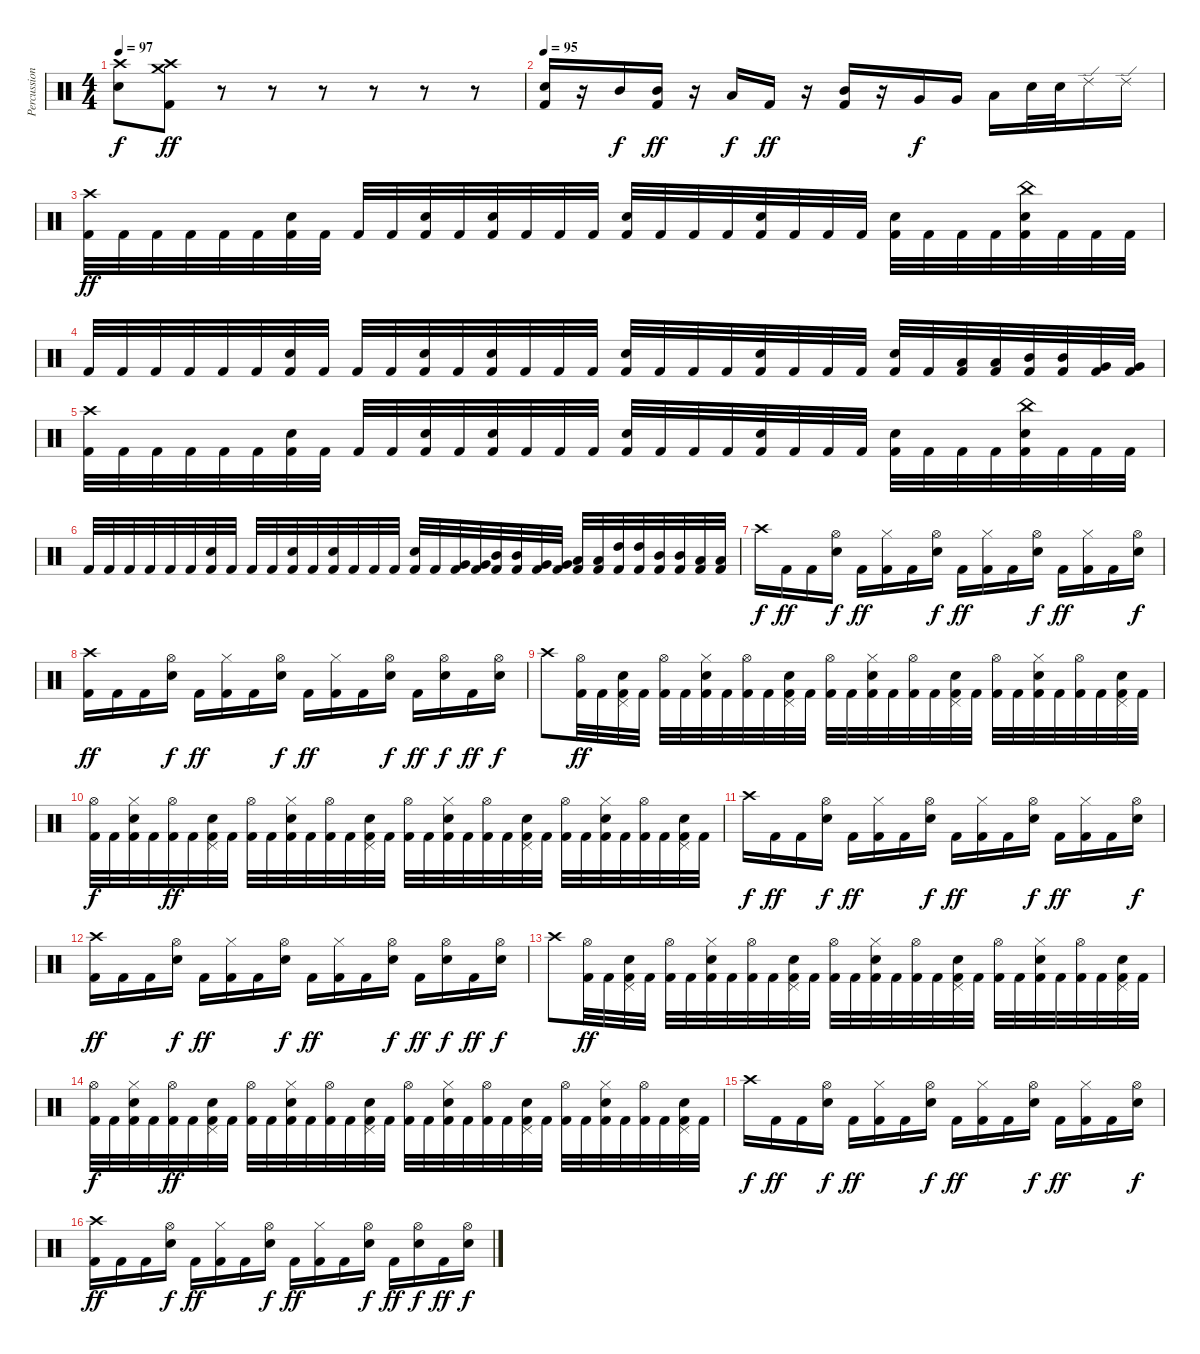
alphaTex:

\track ("Percussion" "Percussion") {instrument percussion}
\staff {score}
\articulation defaults
\ts (4 4)
\tempo 97
\clef neutral
\ks c
("Crash high (hit)" "Electric Snare (hit)").8{dy f} ("Crash high (hit)" "Crash medium (hit)" "Kick (hit) 2").8{dy ff} r.8 r.8 r.8 r.8 r.8 r.8 |
\tempo 95
("Electric Snare (hit)" "Kick (hit) 2").16 r.16 "Mid Tom (hit)".16{dy f} ("Mid Tom (hit)" "Kick (hit) 2").16{dy ff} r.16 "Low Tom (hit)".16{dy f} "Kick (hit) 2".16{dy ff} r.16 ("Mid Tom (hit)" "Kick (hit) 2").16 r.16 "Very Low Tom (hit)".16{dy f} "Very Low Tom (hit)".16 "Low Floor Tom (hit)".16 "Electric Snare (hit)".32 "Electric Snare (hit)".32 "Ride (edge) 2".16 "Ride (edge) 2".16 |
("Crash high (hit)" "Kick (hit) 2").32{dy ff} "Kick (hit) 2".32 "Kick (hit) 2".32 "Kick (hit) 2".32 "Kick (hit) 2".32 "Kick (hit) 2".32 ("Electric Snare (hit)" "Kick (hit) 2").32 "Kick (hit) 2".32 "Kick (hit) 2".32 "Kick (hit) 2".32 ("Electric Snare (hit)" "Kick (hit) 2").32 "Kick (hit) 2".32 ("Electric Snare (hit)" "Kick (hit) 2").32 "Kick (hit) 2".32 "Kick (hit) 2".32 "Kick (hit) 2".32 ("Electric Snare (hit)" "Kick (hit) 2").32 "Kick (hit) 2".32 "Kick (hit) 2".32 "Kick (hit) 2".32 ("Electric Snare (hit)" "Kick (hit) 2").32 "Kick (hit) 2".32 "Kick (hit) 2".32 "Kick (hit) 2".32 ("Electric Snare (hit)" "Kick (hit) 2").32 "Kick (hit) 2".32 "Kick (hit) 2".32 "Kick (hit) 2".32 ("China (hit)" "Electric Snare (hit)" "Kick (hit) 2").32 "Kick (hit) 2".32 "Kick (hit) 2".32 "Kick (hit) 2".32 |
"Kick (hit) 2".32 "Kick (hit) 2".32 "Kick (hit) 2".32 "Kick (hit) 2".32 "Kick (hit) 2".32 "Kick (hit) 2".32 ("Electric Snare (hit)" "Kick (hit) 2").32 "Kick (hit) 2".32 "Kick (hit) 2".32 "Kick (hit) 2".32 ("Electric Snare (hit)" "Kick (hit) 2").32 "Kick (hit) 2".32 ("Electric Snare (hit)" "Kick (hit) 2").32 "Kick (hit) 2".32 "Kick (hit) 2".32 "Kick (hit) 2".32 ("Electric Snare (hit)" "Kick (hit) 2").32 "Kick (hit) 2".32 "Kick (hit) 2".32 "Kick (hit) 2".32 ("Electric Snare (hit)" "Kick (hit) 2").32 "Kick (hit) 2".32 "Kick (hit) 2".32 "Kick (hit) 2".32 ("Electric Snare (hit)" "Kick (hit) 2").32 "Kick (hit) 2".32 ("Low Tom (hit)" "Kick (hit) 2").32 ("Low Tom (hit)" "Kick (hit) 2").32 ("Mid Tom (hit)" "Kick (hit) 2").32 ("Mid Tom (hit)" "Kick (hit) 2").32 ("Very Low Tom (hit)" "Kick (hit) 2").32 ("Very Low Tom (hit)" "Kick (hit) 2").32 |
("Crash high (hit)" "Kick (hit) 2").32 "Kick (hit) 2".32 "Kick (hit) 2".32 "Kick (hit) 2".32 "Kick (hit) 2".32 "Kick (hit) 2".32 ("Electric Snare (hit)" "Kick (hit) 2").32 "Kick (hit) 2".32 "Kick (hit) 2".32 "Kick (hit) 2".32 ("Electric Snare (hit)" "Kick (hit) 2").32 "Kick (hit) 2".32 ("Electric Snare (hit)" "Kick (hit) 2").32 "Kick (hit) 2".32 "Kick (hit) 2".32 "Kick (hit) 2".32 ("Electric Snare (hit)" "Kick (hit) 2").32 "Kick (hit) 2".32 "Kick (hit) 2".32 "Kick (hit) 2".32 ("Electric Snare (hit)" "Kick (hit) 2").32 "Kick (hit) 2".32 "Kick (hit) 2".32 "Kick (hit) 2".32 ("Electric Snare (hit)" "Kick (hit) 2").32 "Kick (hit) 2".32 "Kick (hit) 2".32 "Kick (hit) 2".32 ("China (hit)" "Electric Snare (hit)" "Kick (hit) 2").32 "Kick (hit) 2".32 "Kick (hit) 2".32 "Kick (hit) 2".32 |
"Kick (hit) 2".32 "Kick (hit) 2".32 "Kick (hit) 2".32 "Kick (hit) 2".32 "Kick (hit) 2".32 "Kick (hit) 2".32 ("Electric Snare (hit)" "Kick (hit) 2").32 "Kick (hit) 2".32 "Kick (hit) 2".32 "Kick (hit) 2".32 ("Electric Snare (hit)" "Kick (hit) 2").32 "Kick (hit) 2".32 ("Electric Snare (hit)" "Kick (hit) 2").32 "Kick (hit) 2".32 "Kick (hit) 2".32 "Kick (hit) 2".32 ("Electric Snare (hit)" "Kick (hit) 2").32 "Kick (hit) 2".32 ("Very Low Tom (hit)" "Kick (hit) 2").32 ("Very Low Tom (hit)" "Kick (hit) 2").32 ("Mid Tom (hit)" "Kick (hit) 2").32 ("Mid Tom (hit)" "Kick (hit) 2").32 ("Very Low Tom (hit)" "Kick (hit) 2").32 ("Very Low Tom (hit)" "Kick (hit) 2").32 ("Low Tom (hit)" "Kick (hit) 2").32 ("Low Tom (hit)" "Kick (hit) 2").32 ("High Tom (hit)" "Kick (hit) 2").32 ("High Tom (hit)" "Kick (hit) 2").32 ("Mid Tom (hit)" "Kick (hit) 2").32 ("Mid Tom (hit)" "Kick (hit) 2").32 ("Low Tom (hit)" "Kick (hit) 2").32 ("Low Tom (hit)" "Kick (hit) 2").32 |
"Crash high (hit)".16{dy f} "Kick (hit) 2".16{dy ff} "Kick (hit) 2".16 ("Hi-Hat (open)" "Electric Snare (hit)").16{dy f} "Kick (hit) 2".16{dy ff} ("Hi-Hat (closed)" "Kick (hit) 2").16 "Kick (hit) 2".16 ("Hi-Hat (open)" "Electric Snare (hit)").16{dy f} "Kick (hit) 2".16{dy ff} ("Hi-Hat (closed)" "Kick (hit) 2").16 "Kick (hit) 2".16 ("Hi-Hat (open)" "Electric Snare (hit)").16{dy f} "Kick (hit) 2".16{dy ff} ("Hi-Hat (closed)" "Kick (hit) 2").16 "Kick (hit) 2".16 ("Hi-Hat (open)" "Electric Snare (hit)").16{dy f} |
("Crash high (hit)" "Kick (hit) 2").16{dy ff} "Kick (hit) 2".16 "Kick (hit) 2".16 ("Hi-Hat (open)" "Electric Snare (hit)").16{dy f} "Kick (hit) 2".16{dy ff} ("Hi-Hat (closed)" "Kick (hit) 2").16 "Kick (hit) 2".16 ("Hi-Hat (open)" "Electric Snare (hit)").16{dy f} "Kick (hit) 2".16{dy ff} ("Hi-Hat (closed)" "Kick (hit) 2").16 "Kick (hit) 2".16 ("Hi-Hat (open)" "Electric Snare (hit)").16{dy f} "Kick (hit) 2".16{dy ff} ("Hi-Hat (open)" "Electric Snare (hit)").16{dy f} "Kick (hit) 2".16{dy ff} ("Hi-Hat (open)" "Electric Snare (hit)").16{dy f} |
"Crash high (hit)".8 ("Hi-Hat (open)" "Kick (hit) 2").32{dy ff} "Kick (hit) 2".32 ("Pedal Hi-Hat (hit)" "Electric Snare (hit)" "Kick (hit) 2").32 "Kick (hit) 2".32 ("Hi-Hat (open)" "Kick (hit) 2").32 "Kick (hit) 2".32 ("Hi-Hat (closed)" "Electric Snare (hit)" "Kick (hit) 2").32 "Kick (hit) 2".32 ("Hi-Hat (open)" "Kick (hit) 2").32 "Kick (hit) 2".32 ("Pedal Hi-Hat (hit)" "Electric Snare (hit)" "Kick (hit) 2").32 "Kick (hit) 2".32 ("Hi-Hat (open)" "Kick (hit) 2").32 "Kick (hit) 2".32 ("Hi-Hat (closed)" "Electric Snare (hit)" "Kick (hit) 2").32 "Kick (hit) 2".32 ("Hi-Hat (open)" "Kick (hit) 2").32 "Kick (hit) 2".32 ("Pedal Hi-Hat (hit)" "Electric Snare (hit)" "Kick (hit) 2").32 "Kick (hit) 2".32 ("Hi-Hat (open)" "Kick (hit) 2").32 "Kick (hit) 2".32 ("Hi-Hat (closed)" "Electric Snare (hit)" "Kick (hit) 2").32 "Kick (hit) 2".32 ("Hi-Hat (open)" "Kick (hit) 2").32 "Kick (hit) 2".32 ("Pedal Hi-Hat (hit)" "Electric Snare (hit)" "Kick (hit) 2").32 "Kick (hit) 2".32 |
("Hi-Hat (open)" "Kick (hit) 2").32{dy f} "Kick (hit) 2".32 ("Hi-Hat (closed)" "Electric Snare (hit)" "Kick (hit) 2").32 "Kick (hit) 2".32 ("Hi-Hat (open)" "Kick (hit) 2").32{dy ff} "Kick (hit) 2".32 ("Pedal Hi-Hat (hit)" "Electric Snare (hit)" "Kick (hit) 2").32 "Kick (hit) 2".32 ("Hi-Hat (open)" "Kick (hit) 2").32 "Kick (hit) 2".32 ("Hi-Hat (closed)" "Electric Snare (hit)" "Kick (hit) 2").32 "Kick (hit) 2".32 ("Hi-Hat (open)" "Kick (hit) 2").32 "Kick (hit) 2".32 ("Pedal Hi-Hat (hit)" "Electric Snare (hit)" "Kick (hit) 2").32 "Kick (hit) 2".32 ("Hi-Hat (open)" "Kick (hit) 2").32 "Kick (hit) 2".32 ("Hi-Hat (closed)" "Electric Snare (hit)" "Kick (hit) 2").32 "Kick (hit) 2".32 ("Hi-Hat (open)" "Kick (hit) 2").32 "Kick (hit) 2".32 ("Pedal Hi-Hat (hit)" "Electric Snare (hit)" "Kick (hit) 2").32 "Kick (hit) 2".32 ("Hi-Hat (open)" "Kick (hit) 2").32 "Kick (hit) 2".32 ("Hi-Hat (closed)" "Electric Snare (hit)" "Kick (hit) 2").32 "Kick (hit) 2".32 ("Hi-Hat (open)" "Kick (hit) 2").32 "Kick (hit) 2".32 ("Pedal Hi-Hat (hit)" "Electric Snare (hit)" "Kick (hit) 2").32 "Kick (hit) 2".32 |
"Crash high (hit)".16{dy f} "Kick (hit) 2".16{dy ff} "Kick (hit) 2".16 ("Hi-Hat (open)" "Electric Snare (hit)").16{dy f} "Kick (hit) 2".16{dy ff} ("Hi-Hat (closed)" "Kick (hit) 2").16 "Kick (hit) 2".16 ("Hi-Hat (open)" "Electric Snare (hit)").16{dy f} "Kick (hit) 2".16{dy ff} ("Hi-Hat (closed)" "Kick (hit) 2").16 "Kick (hit) 2".16 ("Hi-Hat (open)" "Electric Snare (hit)").16{dy f} "Kick (hit) 2".16{dy ff} ("Hi-Hat (closed)" "Kick (hit) 2").16 "Kick (hit) 2".16 ("Hi-Hat (open)" "Electric Snare (hit)").16{dy f} |
("Crash high (hit)" "Kick (hit) 2").16{dy ff} "Kick (hit) 2".16 "Kick (hit) 2".16 ("Hi-Hat (open)" "Electric Snare (hit)").16{dy f} "Kick (hit) 2".16{dy ff} ("Hi-Hat (closed)" "Kick (hit) 2").16 "Kick (hit) 2".16 ("Hi-Hat (open)" "Electric Snare (hit)").16{dy f} "Kick (hit) 2".16{dy ff} ("Hi-Hat (closed)" "Kick (hit) 2").16 "Kick (hit) 2".16 ("Hi-Hat (open)" "Electric Snare (hit)").16{dy f} "Kick (hit) 2".16{dy ff} ("Hi-Hat (open)" "Electric Snare (hit)").16{dy f} "Kick (hit) 2".16{dy ff} ("Hi-Hat (open)" "Electric Snare (hit)").16{dy f} |
"Crash high (hit)".8 ("Hi-Hat (open)" "Kick (hit) 2").32{dy ff} "Kick (hit) 2".32 ("Pedal Hi-Hat (hit)" "Electric Snare (hit)" "Kick (hit) 2").32 "Kick (hit) 2".32 ("Hi-Hat (open)" "Kick (hit) 2").32 "Kick (hit) 2".32 ("Hi-Hat (closed)" "Electric Snare (hit)" "Kick (hit) 2").32 "Kick (hit) 2".32 ("Hi-Hat (open)" "Kick (hit) 2").32 "Kick (hit) 2".32 ("Pedal Hi-Hat (hit)" "Electric Snare (hit)" "Kick (hit) 2").32 "Kick (hit) 2".32 ("Hi-Hat (open)" "Kick (hit) 2").32 "Kick (hit) 2".32 ("Hi-Hat (closed)" "Electric Snare (hit)" "Kick (hit) 2").32 "Kick (hit) 2".32 ("Hi-Hat (open)" "Kick (hit) 2").32 "Kick (hit) 2".32 ("Pedal Hi-Hat (hit)" "Electric Snare (hit)" "Kick (hit) 2").32 "Kick (hit) 2".32 ("Hi-Hat (open)" "Kick (hit) 2").32 "Kick (hit) 2".32 ("Hi-Hat (closed)" "Electric Snare (hit)" "Kick (hit) 2").32 "Kick (hit) 2".32 ("Hi-Hat (open)" "Kick (hit) 2").32 "Kick (hit) 2".32 ("Pedal Hi-Hat (hit)" "Electric Snare (hit)" "Kick (hit) 2").32 "Kick (hit) 2".32 |
("Hi-Hat (open)" "Kick (hit) 2").32{dy f} "Kick (hit) 2".32 ("Hi-Hat (closed)" "Electric Snare (hit)" "Kick (hit) 2").32 "Kick (hit) 2".32 ("Hi-Hat (open)" "Kick (hit) 2").32{dy ff} "Kick (hit) 2".32 ("Pedal Hi-Hat (hit)" "Electric Snare (hit)" "Kick (hit) 2").32 "Kick (hit) 2".32 ("Hi-Hat (open)" "Kick (hit) 2").32 "Kick (hit) 2".32 ("Hi-Hat (closed)" "Electric Snare (hit)" "Kick (hit) 2").32 "Kick (hit) 2".32 ("Hi-Hat (open)" "Kick (hit) 2").32 "Kick (hit) 2".32 ("Pedal Hi-Hat (hit)" "Electric Snare (hit)" "Kick (hit) 2").32 "Kick (hit) 2".32 ("Hi-Hat (open)" "Kick (hit) 2").32 "Kick (hit) 2".32 ("Hi-Hat (closed)" "Electric Snare (hit)" "Kick (hit) 2").32 "Kick (hit) 2".32 ("Hi-Hat (open)" "Kick (hit) 2").32 "Kick (hit) 2".32 ("Pedal Hi-Hat (hit)" "Electric Snare (hit)" "Kick (hit) 2").32 "Kick (hit) 2".32 ("Hi-Hat (open)" "Kick (hit) 2").32 "Kick (hit) 2".32 ("Hi-Hat (closed)" "Electric Snare (hit)" "Kick (hit) 2").32 "Kick (hit) 2".32 ("Hi-Hat (open)" "Kick (hit) 2").32 "Kick (hit) 2".32 ("Pedal Hi-Hat (hit)" "Electric Snare (hit)" "Kick (hit) 2").32 "Kick (hit) 2".32 |
"Crash high (hit)".16{dy f} "Kick (hit) 2".16{dy ff} "Kick (hit) 2".16 ("Hi-Hat (open)" "Electric Snare (hit)").16{dy f} "Kick (hit) 2".16{dy ff} ("Hi-Hat (closed)" "Kick (hit) 2").16 "Kick (hit) 2".16 ("Hi-Hat (open)" "Electric Snare (hit)").16{dy f} "Kick (hit) 2".16{dy ff} ("Hi-Hat (closed)" "Kick (hit) 2").16 "Kick (hit) 2".16 ("Hi-Hat (open)" "Electric Snare (hit)").16{dy f} "Kick (hit) 2".16{dy ff} ("Hi-Hat (closed)" "Kick (hit) 2").16 "Kick (hit) 2".16 ("Hi-Hat (open)" "Electric Snare (hit)").16{dy f} |
("Crash high (hit)" "Kick (hit) 2").16{dy ff} "Kick (hit) 2".16 "Kick (hit) 2".16 ("Hi-Hat (open)" "Electric Snare (hit)").16{dy f} "Kick (hit) 2".16{dy ff} ("Hi-Hat (closed)" "Kick (hit) 2").16 "Kick (hit) 2".16 ("Hi-Hat (open)" "Electric Snare (hit)").16{dy f} "Kick (hit) 2".16{dy ff} ("Hi-Hat (closed)" "Kick (hit) 2").16 "Kick (hit) 2".16 ("Hi-Hat (open)" "Electric Snare (hit)").16{dy f} "Kick (hit) 2".16{dy ff} ("Hi-Hat (open)" "Electric Snare (hit)").16{dy f} "Kick (hit) 2".16{dy ff} ("Hi-Hat (open)" "Electric Snare (hit)").16{dy f}
